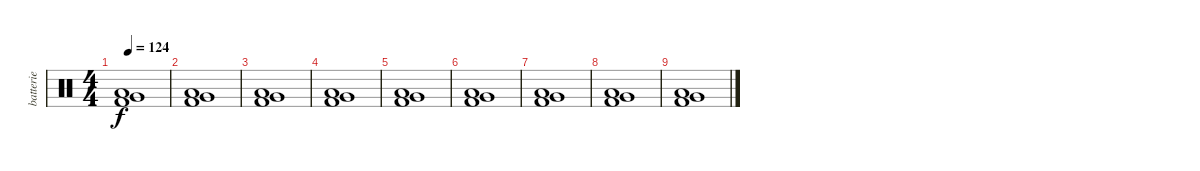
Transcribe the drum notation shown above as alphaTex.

\track ("batterie" "batterie") {instrument percussion}
\staff {score}
\articulation defaults
\ts (4 4)
\tempo 124
\clef neutral
\ks c
("Very Low Tom (hit)" "Kick (hit) 2" "Low Floor Tom (hit)").1{dy f} |
("Very Low Tom (hit)" "Kick (hit) 2" "Low Floor Tom (hit)").1 |
("Very Low Tom (hit)" "Kick (hit) 2" "Low Floor Tom (hit)").1 |
("Very Low Tom (hit)" "Kick (hit) 2" "Low Floor Tom (hit)").1 |
("Very Low Tom (hit)" "Kick (hit) 2" "Low Floor Tom (hit)").1 |
("Very Low Tom (hit)" "Kick (hit) 2" "Low Floor Tom (hit)").1 |
("Very Low Tom (hit)" "Kick (hit) 2" "Low Floor Tom (hit)").1 |
("Very Low Tom (hit)" "Kick (hit) 2" "Low Floor Tom (hit)").1 |
("Very Low Tom (hit)" "Kick (hit) 2" "Low Floor Tom (hit)").1
